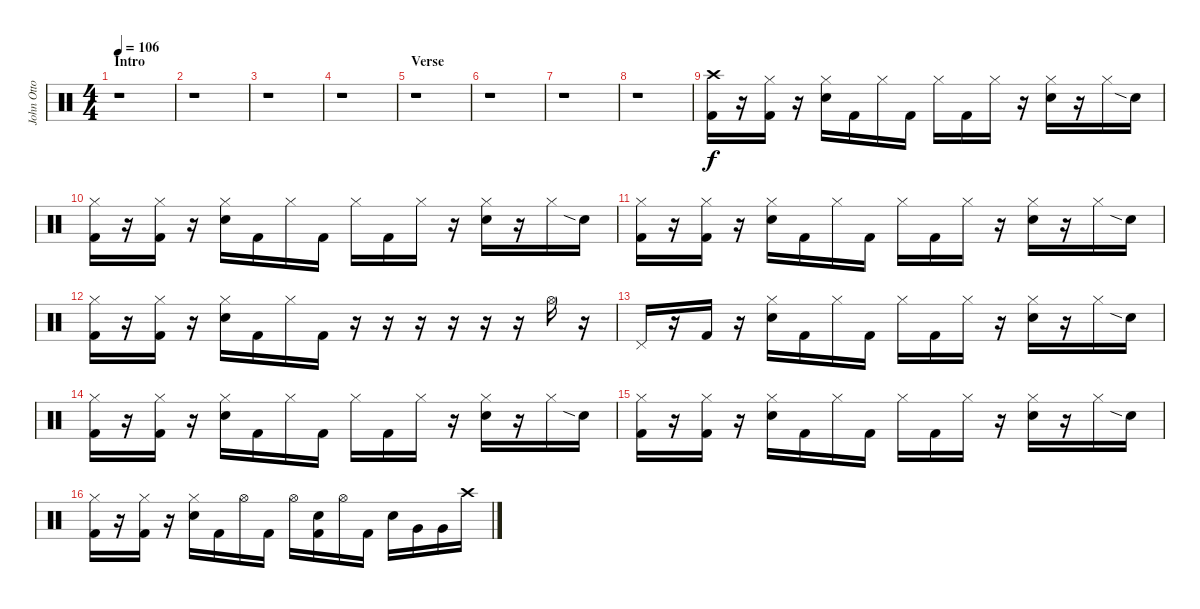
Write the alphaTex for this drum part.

\track ("John Otto" "John Otto") {instrument percussion}
\staff {score}
\articulation defaults
\ts (4 4)
\section ("" "Intro")
\tempo 106
\clef neutral
\ks c
r.1{dy f} |
r.1 |
r.1 |
r.1 |
\section ("" "Verse")
r.1 |
r.1 |
r.1 |
r.1 |
("Crash high (hit)" "Kick (hit) 2").16 r.16 ("Hi-Hat (closed)" "Kick (hit) 2").16 r.16 ("Hi-Hat (closed)" "Snare (hit) 2").16 "Kick (hit) 2".16 "Hi-Hat (closed)".16 "Kick (hit) 2".16 "Hi-Hat (closed)".16 "Kick (hit) 2".16 "Hi-Hat (closed)".16 r.16 ("Hi-Hat (closed)" "Snare (hit) 2").16 r.16 "Hi-Hat (closed)".16 "Snare (hit) 2"{sia}.16 |
("Hi-Hat (closed)" "Kick (hit) 2").16 r.16 ("Hi-Hat (closed)" "Kick (hit) 2").16 r.16 ("Hi-Hat (closed)" "Snare (hit) 2").16 "Kick (hit) 2".16 "Hi-Hat (closed)".16 "Kick (hit) 2".16 "Hi-Hat (closed)".16 "Kick (hit) 2".16 "Hi-Hat (closed)".16 r.16 ("Hi-Hat (closed)" "Snare (hit) 2").16 r.16 "Hi-Hat (closed)".16 "Snare (hit) 2"{sia}.16 |
("Hi-Hat (closed)" "Kick (hit) 2").16 r.16 ("Hi-Hat (closed)" "Kick (hit) 2").16 r.16 ("Hi-Hat (closed)" "Snare (hit) 2").16 "Kick (hit) 2".16 "Hi-Hat (closed)".16 "Kick (hit) 2".16 "Hi-Hat (closed)".16 "Kick (hit) 2".16 "Hi-Hat (closed)".16 r.16 ("Hi-Hat (closed)" "Snare (hit) 2").16 r.16 "Hi-Hat (closed)".16 "Snare (hit) 2"{sia}.16 |
("Hi-Hat (closed)" "Kick (hit) 2").16 r.16 ("Hi-Hat (closed)" "Kick (hit) 2").16 r.16 ("Hi-Hat (closed)" "Snare (hit) 2").16 "Kick (hit) 2".16 "Hi-Hat (closed)".16 "Kick (hit) 2".16 r.16 r.16 r.16 r.16 r.16 r.16 "Hi-Hat (open)".16 r.16 |
"Pedal Hi-Hat (hit)".16 r.16 "Kick (hit) 2".16 r.16 ("Hi-Hat (closed)" "Snare (hit) 2").16 "Kick (hit) 2".16 "Hi-Hat (closed)".16 "Kick (hit) 2".16 "Hi-Hat (closed)".16 "Kick (hit) 2".16 "Hi-Hat (closed)".16 r.16 ("Hi-Hat (closed)" "Snare (hit) 2").16 r.16 "Hi-Hat (closed)".16 "Snare (hit) 2"{sia}.16 |
("Hi-Hat (closed)" "Kick (hit) 2").16 r.16 ("Hi-Hat (closed)" "Kick (hit) 2").16 r.16 ("Hi-Hat (closed)" "Snare (hit) 2").16 "Kick (hit) 2".16 "Hi-Hat (closed)".16 "Kick (hit) 2".16 "Hi-Hat (closed)".16 "Kick (hit) 2".16 "Hi-Hat (closed)".16 r.16 ("Hi-Hat (closed)" "Snare (hit) 2").16 r.16 "Hi-Hat (closed)".16 "Snare (hit) 2"{sia}.16 |
("Hi-Hat (closed)" "Kick (hit) 2").16 r.16 ("Hi-Hat (closed)" "Kick (hit) 2").16 r.16 ("Hi-Hat (closed)" "Snare (hit) 2").16 "Kick (hit) 2".16 "Hi-Hat (closed)".16 "Kick (hit) 2".16 "Hi-Hat (closed)".16 "Kick (hit) 2".16 "Hi-Hat (closed)".16 r.16 ("Hi-Hat (closed)" "Snare (hit) 2").16 r.16 "Hi-Hat (closed)".16 "Snare (hit) 2"{sia}.16 |
("Hi-Hat (closed)" "Kick (hit) 2").16 r.16 ("Hi-Hat (closed)" "Kick (hit) 2").16 r.16 ("Hi-Hat (closed)" "Snare (hit) 2").16 "Kick (hit) 2".16 "Hi-Hat (open)".16 "Kick (hit) 2".16 "Hi-Hat (open)".16 ("Snare (hit) 2" "Kick (hit) 2").16 "Hi-Hat (open)".16 "Kick (hit) 2".16 "Snare (hit) 2".16 "Very Low Tom (hit)".16 "Very Low Tom (hit)".16 "Crash high (hit)".16
